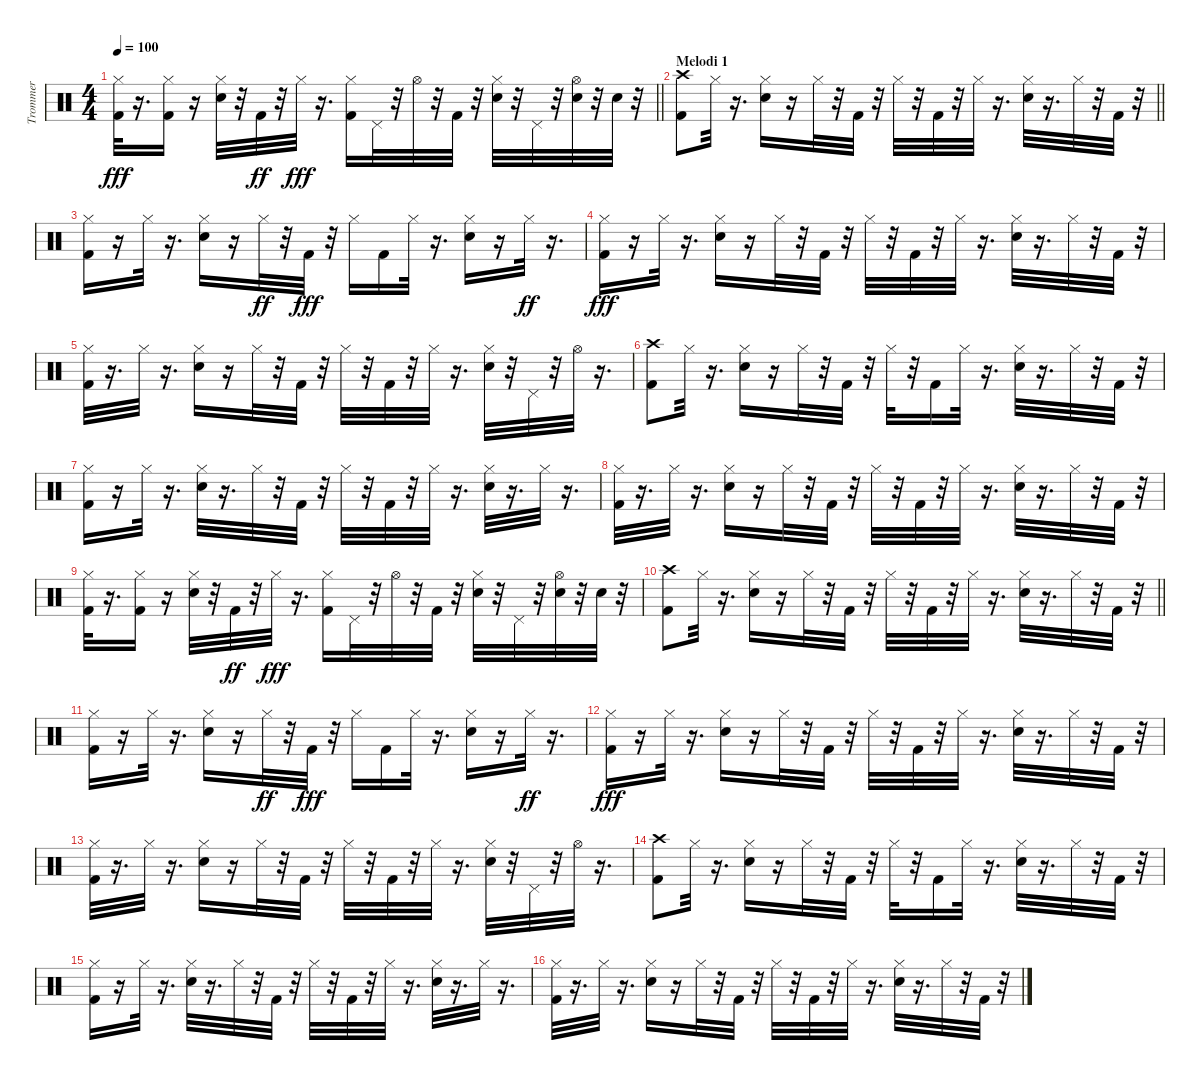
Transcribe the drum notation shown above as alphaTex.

\track ("Trommer" "Trommer") {instrument percussion}
\staff {score}
\articulation defaults
\ts (4 4)
\tempo 100
\clef neutral
\barLineRight lightlight
\ks c
("Kick (hit) 2" "Hi-Hat (closed)").32{dy fff} r.16{d} ("Kick (hit) 2" "Hi-Hat (closed)").16 r.16 ("Snare (hit) 2" "Hi-Hat (closed)").32 r.32 "Kick (hit) 2".32{dy ff} r.32 "Hi-Hat (closed)".32{dy fff} r.16{d} ("Kick (hit) 2" "Hi-Hat (closed)").16 "Pedal Hi-Hat (hit)".32 r.32 "Hi-Hat (open)".32 r.32 "Kick (hit) 2".32 r.32 ("Snare (hit) 2" "Hi-Hat (closed)").32 r.32 "Pedal Hi-Hat (hit)".32 r.32 ("Snare (hit) 2" "Hi-Hat (open)").32 r.32 "Snare (hit) 2".32 r.32 |
\section ("" "Melodi 1")
\barLineRight lightlight
("Kick (hit) 2" "Crash high (hit)").8 "Hi-Hat (closed)".32 r.16{d} ("Snare (hit) 2" "Hi-Hat (closed)").16 r.16 "Hi-Hat (closed)".32 r.32 "Kick (hit) 2".32 r.32 "Hi-Hat (closed)".32 r.32 "Kick (hit) 2".32 r.32 "Hi-Hat (closed)".32 r.16{d} ("Snare (hit) 2" "Hi-Hat (closed)").32 r.16{d} "Hi-Hat (closed)".32 r.32 "Kick (hit) 2".32 r.32 |
("Kick (hit) 2" "Hi-Hat (closed)").16 r.16 "Hi-Hat (closed)".32 r.16{d} ("Snare (hit) 2" "Hi-Hat (closed)").16 r.16 "Hi-Hat (closed)".32{dy ff} r.32 "Kick (hit) 2".32{dy fff} r.32 "Hi-Hat (closed)".16 "Kick (hit) 2".16 "Hi-Hat (closed)".32 r.16{d} ("Snare (hit) 2" "Hi-Hat (closed)").16 r.16 "Hi-Hat (closed)".32{dy ff} r.16{d} |
("Kick (hit) 2" "Hi-Hat (closed)").16{dy fff} r.16 "Hi-Hat (closed)".32 r.16{d} ("Snare (hit) 2" "Hi-Hat (closed)").16 r.16 "Hi-Hat (closed)".32 r.32 "Kick (hit) 2".32 r.32 "Hi-Hat (closed)".32 r.32 "Kick (hit) 2".32 r.32 "Hi-Hat (closed)".32 r.16{d} ("Snare (hit) 2" "Hi-Hat (closed)").32 r.16{d} "Hi-Hat (closed)".32 r.32 "Kick (hit) 2".32 r.32 |
("Kick (hit) 2" "Hi-Hat (closed)").32 r.16{d} "Hi-Hat (closed)".32 r.16{d} ("Snare (hit) 2" "Hi-Hat (closed)").16 r.16 "Hi-Hat (closed)".32 r.32 "Kick (hit) 2".32 r.32 "Hi-Hat (closed)".32 r.32 "Kick (hit) 2".32 r.32 "Hi-Hat (closed)".32 r.16{d} ("Snare (hit) 2" "Hi-Hat (closed)").32 r.32 "Pedal Hi-Hat (hit)".32 r.32 "Hi-Hat (open)".32 r.16{d} |
("Kick (hit) 2" "Crash high (hit)").8 "Hi-Hat (closed)".32 r.16{d} ("Snare (hit) 2" "Hi-Hat (closed)").16 r.16 "Hi-Hat (closed)".32 r.32 "Kick (hit) 2".32 r.32 "Hi-Hat (closed)".32 r.32 "Kick (hit) 2".16 "Hi-Hat (closed)".32 r.16{d} ("Snare (hit) 2" "Hi-Hat (closed)").32 r.16{d} "Hi-Hat (closed)".32 r.32 "Kick (hit) 2".32 r.32 |
("Kick (hit) 2" "Hi-Hat (closed)").16 r.16 "Hi-Hat (closed)".32 r.16{d} ("Snare (hit) 2" "Hi-Hat (closed)").32 r.16{d} "Hi-Hat (closed)".32 r.32 "Kick (hit) 2".32 r.32 "Hi-Hat (closed)".32 r.32 "Kick (hit) 2".32 r.32 "Hi-Hat (closed)".32 r.16{d} ("Snare (hit) 2" "Hi-Hat (closed)").32 r.16{d} "Hi-Hat (closed)".32 r.16{d} |
("Kick (hit) 2" "Hi-Hat (closed)").32 r.16{d} "Hi-Hat (closed)".32 r.16{d} ("Snare (hit) 2" "Hi-Hat (closed)").16 r.16 "Hi-Hat (closed)".32 r.32 "Kick (hit) 2".32 r.32 "Hi-Hat (closed)".32 r.32 "Kick (hit) 2".32 r.32 "Hi-Hat (closed)".32 r.16{d} ("Snare (hit) 2" "Hi-Hat (closed)").32 r.16{d} "Hi-Hat (closed)".32 r.32 "Kick (hit) 2".32 r.32 |
("Kick (hit) 2" "Hi-Hat (closed)").32 r.16{d} ("Kick (hit) 2" "Hi-Hat (closed)").16 r.16 ("Snare (hit) 2" "Hi-Hat (closed)").32 r.32 "Kick (hit) 2".32{dy ff} r.32 "Hi-Hat (closed)".32{dy fff} r.16{d} ("Kick (hit) 2" "Hi-Hat (closed)").16 "Pedal Hi-Hat (hit)".32 r.32 "Hi-Hat (open)".32 r.32 "Kick (hit) 2".32 r.32 ("Snare (hit) 2" "Hi-Hat (closed)").32 r.32 "Pedal Hi-Hat (hit)".32 r.32 ("Snare (hit) 2" "Hi-Hat (open)").32 r.32 "Snare (hit) 2".32 r.32 |
\barLineRight lightlight
("Kick (hit) 2" "Crash high (hit)").8 "Hi-Hat (closed)".32 r.16{d} ("Snare (hit) 2" "Hi-Hat (closed)").16 r.16 "Hi-Hat (closed)".32 r.32 "Kick (hit) 2".32 r.32 "Hi-Hat (closed)".32 r.32 "Kick (hit) 2".32 r.32 "Hi-Hat (closed)".32 r.16{d} ("Snare (hit) 2" "Hi-Hat (closed)").32 r.16{d} "Hi-Hat (closed)".32 r.32 "Kick (hit) 2".32 r.32 |
("Kick (hit) 2" "Hi-Hat (closed)").16 r.16 "Hi-Hat (closed)".32 r.16{d} ("Snare (hit) 2" "Hi-Hat (closed)").16 r.16 "Hi-Hat (closed)".32{dy ff} r.32 "Kick (hit) 2".32{dy fff} r.32 "Hi-Hat (closed)".16 "Kick (hit) 2".16 "Hi-Hat (closed)".32 r.16{d} ("Snare (hit) 2" "Hi-Hat (closed)").16 r.16 "Hi-Hat (closed)".32{dy ff} r.16{d} |
("Kick (hit) 2" "Hi-Hat (closed)").16{dy fff} r.16 "Hi-Hat (closed)".32 r.16{d} ("Snare (hit) 2" "Hi-Hat (closed)").16 r.16 "Hi-Hat (closed)".32 r.32 "Kick (hit) 2".32 r.32 "Hi-Hat (closed)".32 r.32 "Kick (hit) 2".32 r.32 "Hi-Hat (closed)".32 r.16{d} ("Snare (hit) 2" "Hi-Hat (closed)").32 r.16{d} "Hi-Hat (closed)".32 r.32 "Kick (hit) 2".32 r.32 |
("Kick (hit) 2" "Hi-Hat (closed)").32 r.16{d} "Hi-Hat (closed)".32 r.16{d} ("Snare (hit) 2" "Hi-Hat (closed)").16 r.16 "Hi-Hat (closed)".32 r.32 "Kick (hit) 2".32 r.32 "Hi-Hat (closed)".32 r.32 "Kick (hit) 2".32 r.32 "Hi-Hat (closed)".32 r.16{d} ("Snare (hit) 2" "Hi-Hat (closed)").32 r.32 "Pedal Hi-Hat (hit)".32 r.32 "Hi-Hat (open)".32 r.16{d} |
("Kick (hit) 2" "Crash high (hit)").8 "Hi-Hat (closed)".32 r.16{d} ("Snare (hit) 2" "Hi-Hat (closed)").16 r.16 "Hi-Hat (closed)".32 r.32 "Kick (hit) 2".32 r.32 "Hi-Hat (closed)".32 r.32 "Kick (hit) 2".16 "Hi-Hat (closed)".32 r.16{d} ("Snare (hit) 2" "Hi-Hat (closed)").32 r.16{d} "Hi-Hat (closed)".32 r.32 "Kick (hit) 2".32 r.32 |
("Kick (hit) 2" "Hi-Hat (closed)").16 r.16 "Hi-Hat (closed)".32 r.16{d} ("Snare (hit) 2" "Hi-Hat (closed)").32 r.16{d} "Hi-Hat (closed)".32 r.32 "Kick (hit) 2".32 r.32 "Hi-Hat (closed)".32 r.32 "Kick (hit) 2".32 r.32 "Hi-Hat (closed)".32 r.16{d} ("Snare (hit) 2" "Hi-Hat (closed)").32 r.16{d} "Hi-Hat (closed)".32 r.16{d} |
("Kick (hit) 2" "Hi-Hat (closed)").32 r.16{d} "Hi-Hat (closed)".32 r.16{d} ("Snare (hit) 2" "Hi-Hat (closed)").16 r.16 "Hi-Hat (closed)".32 r.32 "Kick (hit) 2".32 r.32 "Hi-Hat (closed)".32 r.32 "Kick (hit) 2".32 r.32 "Hi-Hat (closed)".32 r.16{d} ("Snare (hit) 2" "Hi-Hat (closed)").32 r.16{d} "Hi-Hat (closed)".32 r.32 "Kick (hit) 2".32 r.32
